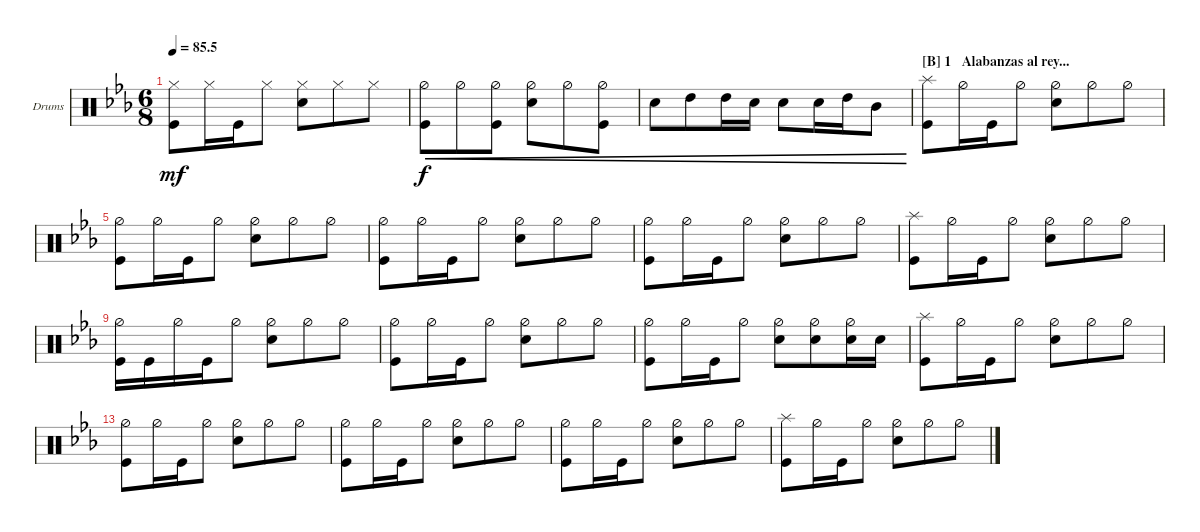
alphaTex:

\defaultSystemsLayout 4
\bracketExtendMode groupsimilarinstruments
\multiTrackTrackNamePolicy allsystems
\firstSystemTrackNameOrientation horizontal
\otherSystemsTrackNameOrientation horizontal
\defaultBarNumberDisplay FirstOfSystem
\track ("Drumkit" "Drums") {instrument percussion}
\staff {score}
\articulation defaults
\ts (6 8)
\tempo
85.5
\accidentals auto
\clef neutral
\ottava regular
\simile none
\ks eb
("Kick (hit)" "Hi-Hat (closed)").8{dy mf} "Hi-Hat (closed)".16 "Kick (hit)".16 "Hi-Hat (closed)".8 ("Snare (hit) 2" "Hi-Hat (closed)").8 "Hi-Hat (closed)".8 "Hi-Hat (closed)".8 |
("Hi-Hat (half)" "Kick (hit)").8{cre dy f} "Hi-Hat (half)".8{cre} ("Hi-Hat (half)" "Kick (hit)").8{cre} ("Hi-Hat (half)" "Snare (hit) 2").8{cre} "Hi-Hat (half)".8{cre} ("Hi-Hat (half)" "Kick (hit)").8{cre} |
"Snare (hit) 2".8{cre} "High Tom (hit)".8{cre} "High Tom (hit)".16{cre} "Snare (hit) 2".16{cre} "Snare (hit) 2".8{cre} "Snare (hit) 2".16{cre} "High Tom (hit)".16{cre} "Mid Tom (hit)".8{cre} |
\section ("B" "1   Alabanzas al rey...")
("Splash (hit)" "Kick (hit)").8 "Hi-Hat (half)".16 "Kick (hit)".16 "Hi-Hat (half)".8 ("Hi-Hat (half)" "Snare (hit) 2").8 "Hi-Hat (half)".8 "Hi-Hat (half)".8 |
("Kick (hit)" "Hi-Hat (half)").8 "Hi-Hat (half)".16 "Kick (hit)".16 "Hi-Hat (half)".8 ("Hi-Hat (half)" "Snare (hit) 2").8 "Hi-Hat (half)".8 "Hi-Hat (half)".8 |
("Kick (hit)" "Hi-Hat (half)").8 "Hi-Hat (half)".16 "Kick (hit)".16 "Hi-Hat (half)".8 ("Hi-Hat (half)" "Snare (hit) 2").8 "Hi-Hat (half)".8 "Hi-Hat (half)".8 |
("Kick (hit)" "Hi-Hat (half)").8 "Hi-Hat (half)".16 "Kick (hit)".16 "Hi-Hat (half)".8 ("Hi-Hat (half)" "Snare (hit) 2").8 "Hi-Hat (half)".8 "Hi-Hat (half)".8 |
("Splash (hit)" "Kick (hit)").8 "Hi-Hat (half)".16 "Kick (hit)".16 "Hi-Hat (half)".8 ("Hi-Hat (half)" "Snare (hit) 2").8 "Hi-Hat (half)".8 "Hi-Hat (half)".8 |
("Kick (hit)" "Hi-Hat (half)").16 "Kick (hit)".16 "Hi-Hat (half)".16 "Kick (hit)".16 "Hi-Hat (half)".8 ("Hi-Hat (half)" "Snare (hit) 2").8 "Hi-Hat (half)".8 "Hi-Hat (half)".8 |
("Kick (hit)" "Hi-Hat (half)").8 "Hi-Hat (half)".16 "Kick (hit)".16 "Hi-Hat (half)".8 ("Hi-Hat (half)" "Snare (hit) 2").8 "Hi-Hat (half)".8 "Hi-Hat (half)".8 |
("Kick (hit)" "Hi-Hat (half)").8 "Hi-Hat (half)".16 "Kick (hit)".16 "Hi-Hat (half)".8 ("Hi-Hat (half)" "Snare (hit) 2").8 ("Hi-Hat (half)" "Snare (hit) 2").8 ("Hi-Hat (half)" "Snare (hit) 2").16 "Snare (hit) 2".16 |
("Splash (hit)" "Kick (hit)").8 "Hi-Hat (half)".16 "Kick (hit)".16 "Hi-Hat (half)".8 ("Hi-Hat (half)" "Snare (hit) 2").8 "Hi-Hat (half)".8 "Hi-Hat (half)".8 |
("Kick (hit)" "Hi-Hat (half)").8 "Hi-Hat (half)".16 "Kick (hit)".16 "Hi-Hat (half)".8 ("Hi-Hat (half)" "Snare (hit) 2").8 "Hi-Hat (half)".8 "Hi-Hat (half)".8 |
("Kick (hit)" "Hi-Hat (half)").8 "Hi-Hat (half)".16 "Kick (hit)".16 "Hi-Hat (half)".8 ("Hi-Hat (half)" "Snare (hit) 2").8 "Hi-Hat (half)".8 "Hi-Hat (half)".8 |
("Kick (hit)" "Hi-Hat (half)").8 "Hi-Hat (half)".16 "Kick (hit)".16 "Hi-Hat (half)".8 ("Hi-Hat (half)" "Snare (hit) 2").8 "Hi-Hat (half)".8 "Hi-Hat (half)".8 |
("Splash (hit)" "Kick (hit)").8 "Hi-Hat (half)".16 "Kick (hit)".16 "Hi-Hat (half)".8 ("Hi-Hat (half)" "Snare (hit) 2").8 "Hi-Hat (half)".8 "Hi-Hat (half)".8
